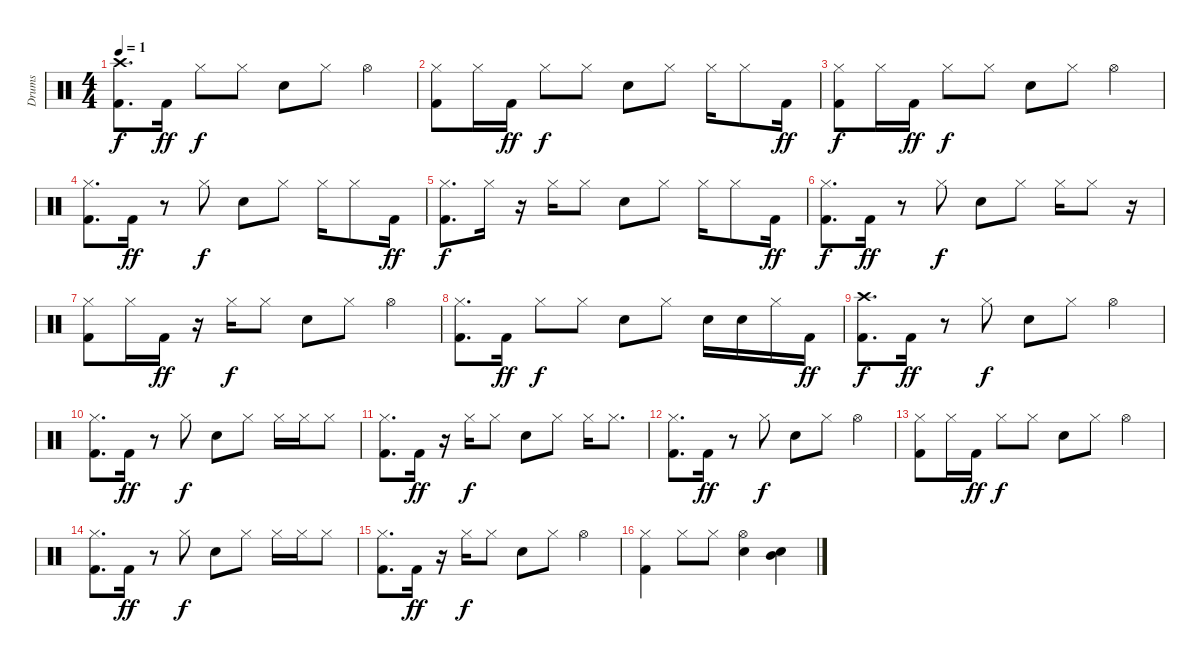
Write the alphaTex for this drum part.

\track ("Drums" "Drums") {instrument percussion}
\staff {score}
\articulation defaults
\ts (4 4)
\tempo 1
\clef neutral
\ks c
("Crash high (hit)" "Kick (hit) 2").8{d dy f} "Kick (hit) 2".16{dy ff} "Hi-Hat (closed)".8{dy f} "Hi-Hat (closed)".8 "Snare (hit) 2".8 "Hi-Hat (closed)".8 "Hi-Hat (open)".4 |
("Hi-Hat (closed)" "Kick (hit) 2").8 "Hi-Hat (closed)".16 "Kick (hit) 2".16{dy ff} "Hi-Hat (closed)".8{dy f} "Hi-Hat (closed)".8 "Snare (hit) 2".8 "Hi-Hat (closed)".8 "Hi-Hat (closed)".16 "Hi-Hat (closed)".8 "Kick (hit) 2".16{dy ff} |
("Hi-Hat (closed)" "Kick (hit) 2").8{dy f} "Hi-Hat (closed)".16 "Kick (hit) 2".16{dy ff} "Hi-Hat (closed)".8{dy f} "Hi-Hat (closed)".8 "Snare (hit) 2".8 "Hi-Hat (closed)".8 "Hi-Hat (open)".4 |
("Hi-Hat (closed)" "Kick (hit) 2").8{d} "Kick (hit) 2".16{dy ff} r.8 "Hi-Hat (closed)".8{dy f} "Snare (hit) 2".8 "Hi-Hat (closed)".8 "Hi-Hat (closed)".16 "Hi-Hat (closed)".8 "Kick (hit) 2".16{dy ff} |
("Hi-Hat (closed)" "Kick (hit) 2").8{d dy f} "Hi-Hat (closed)".16 r.16 "Hi-Hat (closed)".16 "Hi-Hat (closed)".8 "Snare (hit) 2".8 "Hi-Hat (closed)".8 "Hi-Hat (closed)".16 "Hi-Hat (closed)".8 "Kick (hit) 2".16{dy ff} |
("Hi-Hat (closed)" "Kick (hit) 2").8{d dy f} "Kick (hit) 2".16{dy ff} r.8 "Hi-Hat (closed)".8{dy f} "Snare (hit) 2".8 "Hi-Hat (closed)".8 "Hi-Hat (closed)".16 "Hi-Hat (closed)".8 r.16 |
("Hi-Hat (closed)" "Kick (hit) 2").8 "Hi-Hat (closed)".16 "Kick (hit) 2".16{dy ff} r.16 "Hi-Hat (closed)".16{dy f} "Hi-Hat (closed)".8 "Snare (hit) 2".8 "Hi-Hat (closed)".8 "Hi-Hat (open)".4 |
("Hi-Hat (closed)" "Kick (hit) 2").8{d} "Kick (hit) 2".16{dy ff} "Hi-Hat (closed)".8{dy f} "Hi-Hat (closed)".8 "Snare (hit) 2".8 "Hi-Hat (closed)".8 "Snare (hit) 2".16 "Snare (hit) 2".16 "Hi-Hat (closed)".16 "Kick (hit) 2".16{dy ff} |
("Crash high (hit)" "Kick (hit) 2").8{d dy f} "Kick (hit) 2".16{dy ff} r.8 "Hi-Hat (closed)".8{dy f} "Snare (hit) 2".8 "Hi-Hat (closed)".8 "Hi-Hat (open)".4 |
("Hi-Hat (closed)" "Kick (hit) 2").8{d} "Kick (hit) 2".16{dy ff} r.8 "Hi-Hat (closed)".8{dy f} "Snare (hit) 2".8 "Hi-Hat (closed)".8 "Hi-Hat (closed)".16 "Hi-Hat (closed)".16 "Hi-Hat (closed)".8 |
("Hi-Hat (closed)" "Kick (hit) 2").8{d} "Kick (hit) 2".16{dy ff} r.16 "Hi-Hat (closed)".16{dy f} "Hi-Hat (closed)".8 "Snare (hit) 2".8 "Hi-Hat (closed)".8 "Hi-Hat (closed)".16 "Hi-Hat (closed)".8{d} |
("Hi-Hat (closed)" "Kick (hit) 2").8{d} "Kick (hit) 2".16{dy ff} r.8 "Hi-Hat (closed)".8{dy f} "Snare (hit) 2".8 "Hi-Hat (closed)".8 "Hi-Hat (open)".4 |
("Hi-Hat (closed)" "Kick (hit) 2").8 "Hi-Hat (closed)".16 "Kick (hit) 2".16{dy ff} "Hi-Hat (closed)".8{dy f} "Hi-Hat (closed)".8 "Snare (hit) 2".8 "Hi-Hat (closed)".8 "Hi-Hat (open)".4 |
("Hi-Hat (closed)" "Kick (hit) 2").8{d} "Kick (hit) 2".16{dy ff} r.8 "Hi-Hat (closed)".8{dy f} "Snare (hit) 2".8 "Hi-Hat (closed)".8 "Hi-Hat (closed)".16 "Hi-Hat (closed)".16 "Hi-Hat (closed)".8 |
("Hi-Hat (closed)" "Kick (hit) 2").8{d} "Kick (hit) 2".16{dy ff} r.16 "Hi-Hat (closed)".16{dy f} "Hi-Hat (closed)".8 "Snare (hit) 2".8 "Hi-Hat (closed)".8 "Hi-Hat (open)".4 |
("Hi-Hat (closed)" "Kick (hit) 2").4 "Hi-Hat (closed)".8 "Hi-Hat (closed)".8 ("Hi-Hat (open)" "Snare (hit) 2").4 ("Mid Tom (hit)" "Snare (hit) 2").4
